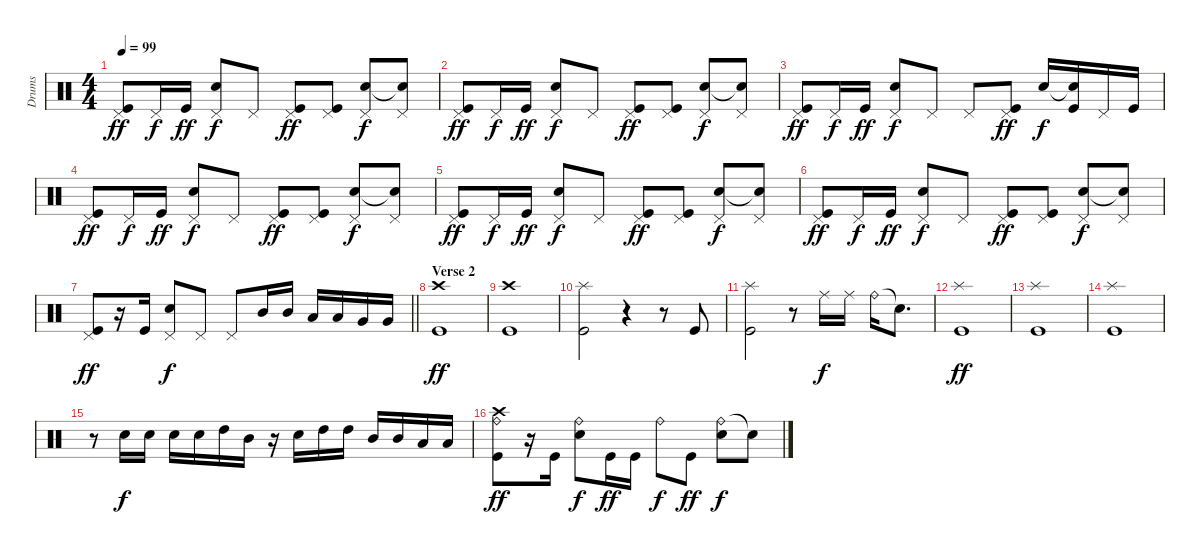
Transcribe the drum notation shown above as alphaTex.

\track ("Drums" "Drums") {instrument percussion}
\staff {score}
\articulation defaults
\ts (4 4)
\tempo 99
\clef neutral
\ks c
("Pedal Hi-Hat (hit)" "Kick (hit)").8{dy ff} "Pedal Hi-Hat (hit)".16{dy f} "Kick (hit)".16{dy ff} ("Pedal Hi-Hat (hit)" "Electric Snare (hit)").8{dy f} "Pedal Hi-Hat (hit)".8 ("Pedal Hi-Hat (hit)" "Kick (hit)").8{dy ff} ("Pedal Hi-Hat (hit)" "Kick (hit)").8 ("Pedal Hi-Hat (hit)" "Electric Snare (hit)").8{dy f} ("Pedal Hi-Hat (hit)" "Snare (hit)"{t}).8 |
("Pedal Hi-Hat (hit)" "Kick (hit)").8{dy ff} "Pedal Hi-Hat (hit)".16{dy f} "Kick (hit)".16{dy ff} ("Pedal Hi-Hat (hit)" "Electric Snare (hit)").8{dy f} "Pedal Hi-Hat (hit)".8 ("Pedal Hi-Hat (hit)" "Kick (hit)").8{dy ff} ("Pedal Hi-Hat (hit)" "Kick (hit)").8 ("Pedal Hi-Hat (hit)" "Electric Snare (hit)").8{dy f} ("Pedal Hi-Hat (hit)" "Snare (hit)"{t}).8 |
("Pedal Hi-Hat (hit)" "Kick (hit)").8{dy ff} "Pedal Hi-Hat (hit)".16{dy f} "Kick (hit)".16{dy ff} ("Pedal Hi-Hat (hit)" "Electric Snare (hit)").8{dy f} "Pedal Hi-Hat (hit)".8 "Pedal Hi-Hat (hit)".8 ("Pedal Hi-Hat (hit)" "Kick (hit)").8{dy ff} "Electric Snare (hit)".16{dy f} ("Snare (hit)"{t} "Kick (hit)").16 "Pedal Hi-Hat (hit)".16 "Kick (hit)".16 |
("Pedal Hi-Hat (hit)" "Kick (hit)").8{dy ff} "Pedal Hi-Hat (hit)".16{dy f} "Kick (hit)".16{dy ff} ("Pedal Hi-Hat (hit)" "Electric Snare (hit)").8{dy f} "Pedal Hi-Hat (hit)".8 ("Pedal Hi-Hat (hit)" "Kick (hit)").8{dy ff} ("Pedal Hi-Hat (hit)" "Kick (hit)").8 ("Pedal Hi-Hat (hit)" "Electric Snare (hit)").8{dy f} ("Pedal Hi-Hat (hit)" "Snare (hit)"{t}).8 |
("Pedal Hi-Hat (hit)" "Kick (hit)").8{dy ff} "Pedal Hi-Hat (hit)".16{dy f} "Kick (hit)".16{dy ff} ("Pedal Hi-Hat (hit)" "Electric Snare (hit)").8{dy f} "Pedal Hi-Hat (hit)".8 ("Pedal Hi-Hat (hit)" "Kick (hit)").8{dy ff} ("Pedal Hi-Hat (hit)" "Kick (hit)").8 ("Pedal Hi-Hat (hit)" "Electric Snare (hit)").8{dy f} ("Pedal Hi-Hat (hit)" "Snare (hit)"{t}).8 |
("Pedal Hi-Hat (hit)" "Kick (hit)").8{dy ff} "Pedal Hi-Hat (hit)".16{dy f} "Kick (hit)".16{dy ff} ("Pedal Hi-Hat (hit)" "Electric Snare (hit)").8{dy f} "Pedal Hi-Hat (hit)".8 ("Pedal Hi-Hat (hit)" "Kick (hit)").8{dy ff} ("Pedal Hi-Hat (hit)" "Kick (hit)").8 ("Pedal Hi-Hat (hit)" "Electric Snare (hit)").8{dy f} ("Pedal Hi-Hat (hit)" "Snare (hit)"{t}).8 |
\barLineRight lightlight
("Pedal Hi-Hat (hit)" "Kick (hit)").8{dy ff} r.16 "Kick (hit)".16 ("Pedal Hi-Hat (hit)" "Electric Snare (hit)").8{dy f} "Pedal Hi-Hat (hit)".8 "Pedal Hi-Hat (hit)".8 "Mid Tom (hit)".16 "Mid Tom (hit)".16 "Low Tom (hit)".16 "Low Tom (hit)".16 "Very Low Tom (hit)".16 "Very Low Tom (hit)".16 |
\section ("" "Verse 2")
("Crash high (hit)" "Kick (hit)").1{dy ff} |
("Crash high (hit)" "Kick (hit)").1 |
("Splash (hit)" "Kick (hit)").2 r.4 r.8 "Kick (hit)".8 |
("Splash (hit)" "Kick (hit)").2 r.8 "Ride (middle)".16{dy f} "Ride (middle)".16 "Ride (bell)".16 "Snare (hit)"{t}.8{d} |
("Splash (hit)" "Kick (hit)").1{dy ff} |
("Splash (hit)" "Kick (hit)").1 |
("Splash (hit)" "Kick (hit)").1 |
r.8 "Electric Snare (hit)".16{dy f} "Electric Snare (hit)".16 "Electric Snare (hit)".16 "Electric Snare (hit)".16 "High Tom (hit)".16 "Mid Tom (hit)".16 r.16 "Electric Snare (hit)".16 "High Tom (hit)".16 "High Tom (hit)".16 "Mid Tom (hit)".16 "Mid Tom (hit)".16 "Low Tom (hit)".16 "Low Tom (hit)".16 |
("Crash high (hit)" "Ride (bell)" "Kick (hit)").8{dy ff} r.16 "Kick (hit)".16 ("Ride (bell)" "Electric Snare (hit)").8{dy f} "Kick (hit)".16{dy ff} "Kick (hit)".16 "Ride (bell)".8{dy f} "Kick (hit)".8{dy ff} ("Ride (bell)" "Electric Snare (hit)").8{dy f} "Snare (hit)"{t}.8
